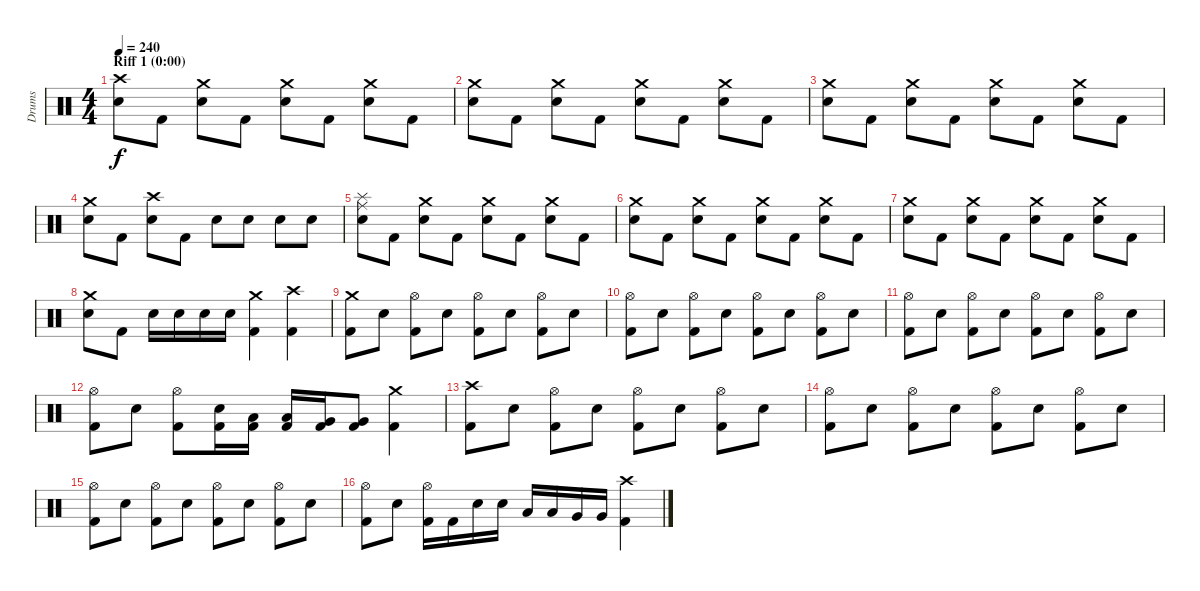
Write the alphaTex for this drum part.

\track ("Drums" "Drums") {instrument percussion}
\staff {score}
\articulation defaults
\ts (4 4)
\section ("" "Riff 1 (0:00)")
\tempo 240
\clef neutral
\ks c
("Crash high (hit)" "Electric Snare (hit)").8{dy f} "Kick (hit) 2".8 ("Crash medium (hit)" "Electric Snare (hit)").8 "Kick (hit) 2".8 ("Crash medium (hit)" "Electric Snare (hit)").8 "Kick (hit) 2".8 ("Crash medium (hit)" "Electric Snare (hit)").8 "Kick (hit) 2".8 |
("Crash medium (hit)" "Electric Snare (hit)").8 "Kick (hit) 2".8 ("Crash medium (hit)" "Electric Snare (hit)").8 "Kick (hit) 2".8 ("Crash medium (hit)" "Electric Snare (hit)").8 "Kick (hit) 2".8 ("Crash medium (hit)" "Electric Snare (hit)").8 "Kick (hit) 2".8 |
("Crash medium (hit)" "Electric Snare (hit)").8 "Kick (hit) 2".8 ("Crash medium (hit)" "Electric Snare (hit)").8 "Kick (hit) 2".8 ("Crash medium (hit)" "Electric Snare (hit)").8 "Kick (hit) 2".8 ("Crash medium (hit)" "Electric Snare (hit)").8 "Kick (hit) 2".8 |
("Crash medium (hit)" "Electric Snare (hit)").8 "Kick (hit) 2".8 ("Crash high (hit)" "Electric Snare (hit)").8 "Kick (hit) 2".8 "Electric Snare (hit)".8 "Electric Snare (hit)".8 "Electric Snare (hit)".8 "Electric Snare (hit)".8 |
("Splash (hit)" "Ride (middle)" "Electric Snare (hit)").8 "Kick (hit) 2".8 ("Crash medium (hit)" "Electric Snare (hit)").8 "Kick (hit) 2".8 ("Crash medium (hit)" "Electric Snare (hit)").8 "Kick (hit) 2".8 ("Crash medium (hit)" "Electric Snare (hit)").8 "Kick (hit) 2".8 |
("Crash medium (hit)" "Electric Snare (hit)").8 "Kick (hit) 2".8 ("Crash medium (hit)" "Electric Snare (hit)").8 "Kick (hit) 2".8 ("Crash medium (hit)" "Electric Snare (hit)").8 "Kick (hit) 2".8 ("Crash medium (hit)" "Electric Snare (hit)").8 "Kick (hit) 2".8 |
("Crash medium (hit)" "Electric Snare (hit)").8 "Kick (hit) 2".8 ("Crash medium (hit)" "Electric Snare (hit)").8 "Kick (hit) 2".8 ("Crash medium (hit)" "Electric Snare (hit)").8 "Kick (hit) 2".8 ("Crash medium (hit)" "Electric Snare (hit)").8 "Kick (hit) 2".8 |
("Crash medium (hit)" "Electric Snare (hit)").8 "Kick (hit) 2".8 "Electric Snare (hit)".16 "Electric Snare (hit)".16 "Electric Snare (hit)".16 "Electric Snare (hit)".16 ("Crash medium (hit)" "Kick (hit) 2").4 ("Crash high (hit)" "Kick (hit) 2").4 |
("Crash medium (hit)" "Kick (hit) 2").8 "Electric Snare (hit)".8 ("Hi-Hat (open)" "Kick (hit) 2").8 "Electric Snare (hit)".8 ("Hi-Hat (open)" "Kick (hit) 2").8 "Electric Snare (hit)".8 ("Hi-Hat (open)" "Kick (hit) 2").8 "Electric Snare (hit)".8 |
("Hi-Hat (open)" "Kick (hit) 2").8 "Electric Snare (hit)".8 ("Hi-Hat (open)" "Kick (hit) 2").8 "Electric Snare (hit)".8 ("Hi-Hat (open)" "Kick (hit) 2").8 "Electric Snare (hit)".8 ("Hi-Hat (open)" "Kick (hit) 2").8 "Electric Snare (hit)".8 |
("Hi-Hat (open)" "Kick (hit) 2").8 "Electric Snare (hit)".8 ("Hi-Hat (open)" "Kick (hit) 2").8 "Electric Snare (hit)".8 ("Hi-Hat (open)" "Kick (hit) 2").8 "Electric Snare (hit)".8 ("Hi-Hat (open)" "Kick (hit) 2").8 "Electric Snare (hit)".8 |
("Hi-Hat (open)" "Kick (hit) 2").8 "Electric Snare (hit)".8 ("Hi-Hat (open)" "Kick (hit) 2").8 ("Electric Snare (hit)" "Kick (hit) 2").16 ("Low Tom (hit)" "Kick (hit) 2").16 ("Low Tom (hit)" "Kick (hit) 2").16 ("Very Low Tom (hit)" "Kick (hit) 2").16 ("Very Low Tom (hit)" "Kick (hit) 2").8 ("Crash medium (hit)" "Kick (hit) 2").4 |
("Crash high (hit)" "Kick (hit) 2").8 "Electric Snare (hit)".8 ("Hi-Hat (open)" "Kick (hit) 2").8 "Electric Snare (hit)".8 ("Hi-Hat (open)" "Kick (hit) 2").8 "Electric Snare (hit)".8 ("Hi-Hat (open)" "Kick (hit) 2").8 "Electric Snare (hit)".8 |
("Hi-Hat (open)" "Kick (hit) 2").8 "Electric Snare (hit)".8 ("Hi-Hat (open)" "Kick (hit) 2").8 "Electric Snare (hit)".8 ("Hi-Hat (open)" "Kick (hit) 2").8 "Electric Snare (hit)".8 ("Hi-Hat (open)" "Kick (hit) 2").8 "Electric Snare (hit)".8 |
("Hi-Hat (open)" "Kick (hit) 2").8 "Electric Snare (hit)".8 ("Hi-Hat (open)" "Kick (hit) 2").8 "Electric Snare (hit)".8 ("Hi-Hat (open)" "Kick (hit) 2").8 "Electric Snare (hit)".8 ("Hi-Hat (open)" "Kick (hit) 2").8 "Electric Snare (hit)".8 |
("Hi-Hat (open)" "Kick (hit) 2").8 "Electric Snare (hit)".8 ("Hi-Hat (open)" "Kick (hit) 2").16 "Kick (hit) 2".16 "Electric Snare (hit)".16 "Electric Snare (hit)".16 "Low Tom (hit)".16 "Low Tom (hit)".16 "Very Low Tom (hit)".16 "Very Low Tom (hit)".16 ("Crash high (hit)" "Kick (hit) 2").4
